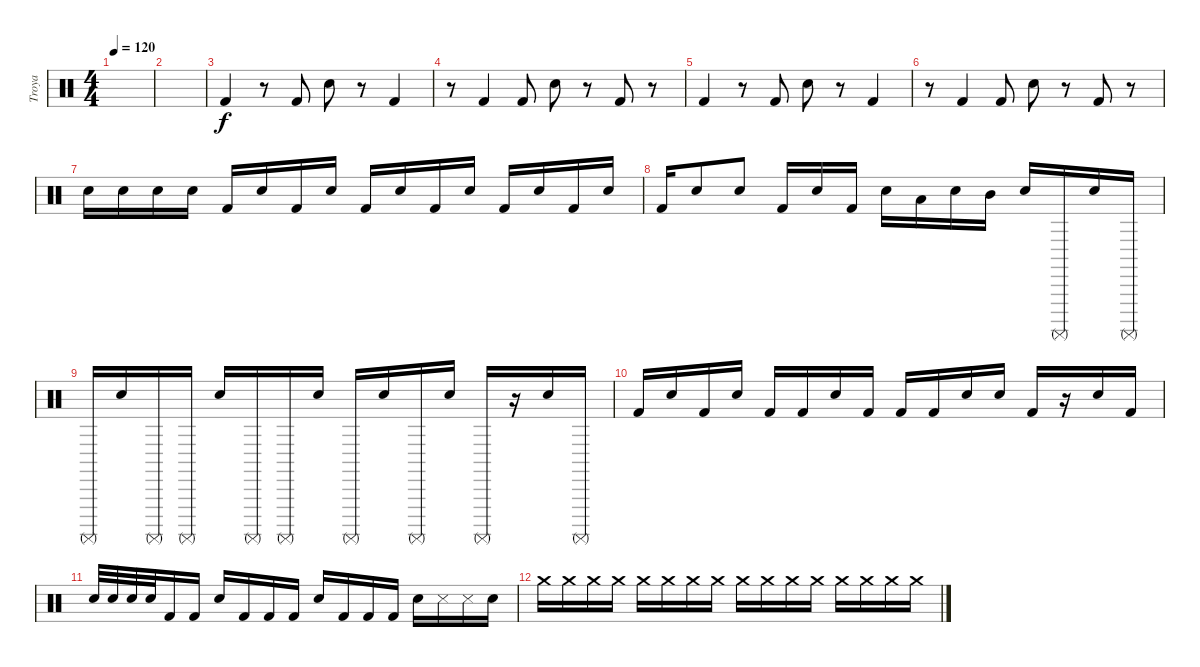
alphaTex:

\track ("Troya" "Troya") {instrument percussion}
\staff {score}
\articulation defaults
\ts (4 4)
\tempo 120
\clef neutral
\ks c
|
|
"Kick (hit) 2".4 r.8 "Kick (hit) 2".8 "Snare (hit) 2".8 r.8 "Kick (hit) 2".4 |
r.8 "Kick (hit) 2".4 "Kick (hit) 2".8 "Snare (hit) 2".8 r.8 "Kick (hit) 2".8 r.8 |
"Kick (hit) 2".4 r.8 "Kick (hit) 2".8 "Snare (hit) 2".8 r.8 "Kick (hit) 2".4 |
r.8 "Kick (hit) 2".4 "Kick (hit) 2".8 "Snare (hit) 2".8 r.8 "Kick (hit) 2".8 r.8 |
"Snare (hit) 2".16 "Snare (hit) 2".16 "Snare (hit) 2".16 "Snare (hit) 2".16 "Kick (hit) 2".16 "Snare (hit) 2".16 "Kick (hit) 2".16 "Snare (hit) 2".16 "Kick (hit) 2".16 "Snare (hit) 2".16 "Kick (hit) 2".16 "Snare (hit) 2".16 "Kick (hit) 2".16 "Snare (hit) 2".16 "Kick (hit) 2".16 "Snare (hit) 2".16 |
"Kick (hit) 2".16 "Snare (hit) 2".8 "Snare (hit) 2".8 "Kick (hit) 2".16 "Snare (hit) 2".16 "Kick (hit) 2".16 "Snare (hit) 2".16 "Low Tom (hit)".16 "Snare (hit) 2".16 "Mid Tom (hit)".16 "Electric Snare (hit)".16 "Surdo (mute)".16 "Electric Snare (hit)".16 "Surdo (mute)".16 |
"Surdo (mute)".16 "Electric Snare (hit)".16 "Surdo (mute)".16 "Surdo (mute)".16 "Electric Snare (hit)".16 "Surdo (mute)".16 "Surdo (mute)".16 "Electric Snare (hit)".16 "Surdo (mute)".16 "Electric Snare (hit)".16 "Surdo (mute)".16 "Electric Snare (hit)".16 "Surdo (mute)".16 r.16 "Electric Snare (hit)".16 "Surdo (mute)".16 |
"Kick (hit) 2".16 "Snare (hit) 2".16 "Kick (hit) 2".16 "Snare (hit) 2".16 "Kick (hit) 2".16 "Kick (hit) 2".16 "Snare (hit) 2".16 "Kick (hit) 2".16 "Kick (hit) 2".16 "Kick (hit) 2".16 "Snare (hit) 2".16 "Snare (hit) 2".16 "Kick (hit) 2".16 r.16 "Snare (hit) 2".16 "Kick (hit) 2".16 |
"Snare (hit) 2".32 "Snare (hit) 2".32 "Snare (hit) 2".32 "Snare (hit) 2".32 "Kick (hit) 2".16 "Kick (hit) 2".16 "Snare (hit) 2".16 "Kick (hit) 2".16 "Kick (hit) 2".16 "Kick (hit) 2".16 "Snare (hit) 2".16 "Kick (hit) 2".16 "Kick (hit) 2".16 "Kick (hit) 2".16 "Snare (hit) 2".16 "Metronome (hit)".16 "Metronome (hit)".16 "Snare (hit) 2".16 |
"Crash medium (hit)".16{volume 0} "Crash medium (hit)".16 "Crash medium (hit)".16 "Crash medium (hit)".16 "Crash medium (hit)".16 "Crash medium (hit)".16 "Crash medium (hit)".16 "Crash medium (hit)".16 "Crash medium (hit)".16 "Crash medium (hit)".16 "Crash medium (hit)".16 "Crash medium (hit)".16 "Crash medium (hit)".16 "Crash medium (hit)".16 "Crash medium (hit)".16 "Crash medium (hit)".16
